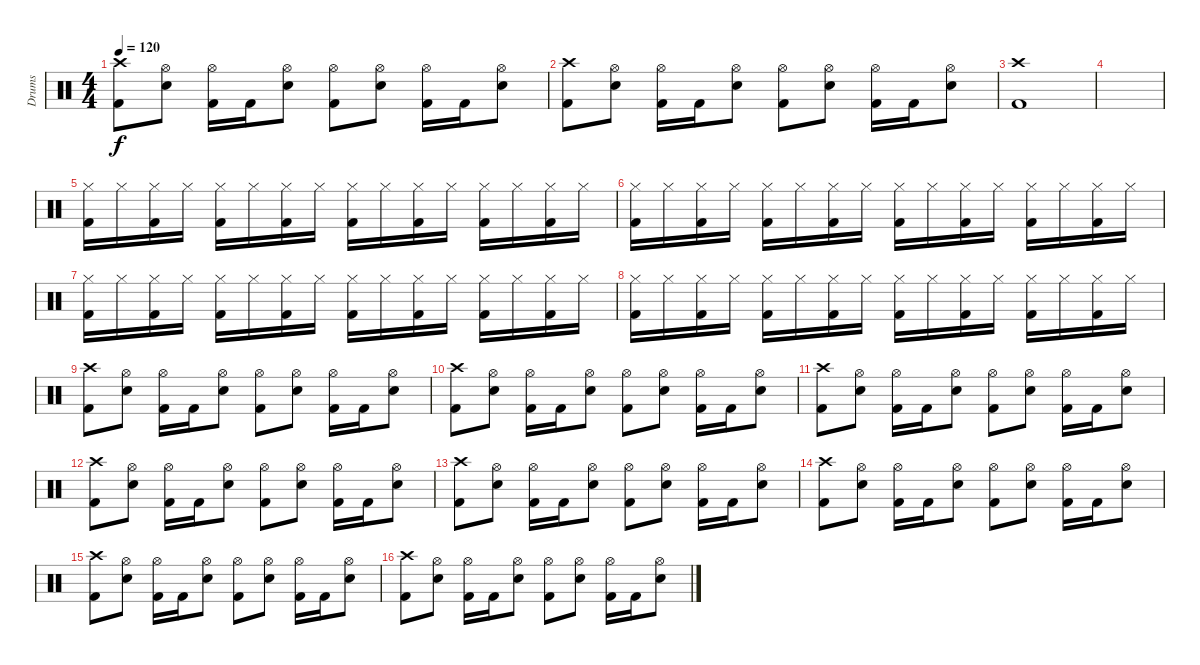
\track ("Drums" "Drums") {instrument percussion}
\staff {score}
\articulation defaults
\ts (4 4)
\tempo 120
\clef neutral
\ks c
("Crash high (hit)" "Kick (hit) 2").8{dy f} ("Hi-Hat (open)" "Snare (hit) 2").8 ("Hi-Hat (open)" "Kick (hit) 2").16 "Kick (hit) 2".16 ("Hi-Hat (open)" "Snare (hit) 2").8 ("Hi-Hat (open)" "Kick (hit) 2").8 ("Hi-Hat (open)" "Snare (hit) 2").8 ("Hi-Hat (open)" "Kick (hit) 2").16 "Kick (hit) 2".16 ("Hi-Hat (open)" "Snare (hit) 2").8 |
("Crash high (hit)" "Kick (hit) 2").8 ("Hi-Hat (open)" "Snare (hit) 2").8 ("Hi-Hat (open)" "Kick (hit) 2").16 "Kick (hit) 2".16 ("Hi-Hat (open)" "Snare (hit) 2").8 ("Hi-Hat (open)" "Kick (hit) 2").8 ("Hi-Hat (open)" "Snare (hit) 2").8 ("Hi-Hat (open)" "Kick (hit) 2").16 "Kick (hit) 2".16 ("Hi-Hat (open)" "Snare (hit) 2").8 |
("Crash high (hit)" "Kick (hit) 2").1 |
|
("Hi-Hat (closed)" "Kick (hit) 2").16 "Hi-Hat (closed)".16 ("Hi-Hat (closed)" "Kick (hit) 2").16 "Hi-Hat (closed)".16 ("Hi-Hat (closed)" "Kick (hit) 2").16 "Hi-Hat (closed)".16 ("Hi-Hat (closed)" "Kick (hit) 2").16 "Hi-Hat (closed)".16 ("Hi-Hat (closed)" "Kick (hit) 2").16 "Hi-Hat (closed)".16 ("Hi-Hat (closed)" "Kick (hit) 2").16 "Hi-Hat (closed)".16 ("Hi-Hat (closed)" "Kick (hit) 2").16 "Hi-Hat (closed)".16 ("Hi-Hat (closed)" "Kick (hit) 2").16 "Hi-Hat (closed)".16 |
("Hi-Hat (closed)" "Kick (hit) 2").16 "Hi-Hat (closed)".16 ("Hi-Hat (closed)" "Kick (hit) 2").16 "Hi-Hat (closed)".16 ("Hi-Hat (closed)" "Kick (hit) 2").16 "Hi-Hat (closed)".16 ("Hi-Hat (closed)" "Kick (hit) 2").16 "Hi-Hat (closed)".16 ("Hi-Hat (closed)" "Kick (hit) 2").16 "Hi-Hat (closed)".16 ("Hi-Hat (closed)" "Kick (hit) 2").16 "Hi-Hat (closed)".16 ("Hi-Hat (closed)" "Kick (hit) 2").16 "Hi-Hat (closed)".16 ("Hi-Hat (closed)" "Kick (hit) 2").16 "Hi-Hat (closed)".16 |
("Hi-Hat (closed)" "Kick (hit) 2").16 "Hi-Hat (closed)".16 ("Hi-Hat (closed)" "Kick (hit) 2").16 "Hi-Hat (closed)".16 ("Hi-Hat (closed)" "Kick (hit) 2").16 "Hi-Hat (closed)".16 ("Hi-Hat (closed)" "Kick (hit) 2").16 "Hi-Hat (closed)".16 ("Hi-Hat (closed)" "Kick (hit) 2").16 "Hi-Hat (closed)".16 ("Hi-Hat (closed)" "Kick (hit) 2").16 "Hi-Hat (closed)".16 ("Hi-Hat (closed)" "Kick (hit) 2").16 "Hi-Hat (closed)".16 ("Hi-Hat (closed)" "Kick (hit) 2").16 "Hi-Hat (closed)".16 |
("Hi-Hat (closed)" "Kick (hit) 2").16 "Hi-Hat (closed)".16 ("Hi-Hat (closed)" "Kick (hit) 2").16 "Hi-Hat (closed)".16 ("Hi-Hat (closed)" "Kick (hit) 2").16 "Hi-Hat (closed)".16 ("Hi-Hat (closed)" "Kick (hit) 2").16 "Hi-Hat (closed)".16 ("Hi-Hat (closed)" "Kick (hit) 2").16 "Hi-Hat (closed)".16 ("Hi-Hat (closed)" "Kick (hit) 2").16 "Hi-Hat (closed)".16 ("Hi-Hat (closed)" "Kick (hit) 2").16 "Hi-Hat (closed)".16 ("Hi-Hat (closed)" "Kick (hit) 2").16 "Hi-Hat (closed)".16 |
("Crash high (hit)" "Kick (hit) 2").8 ("Hi-Hat (open)" "Snare (hit) 2").8 ("Hi-Hat (open)" "Kick (hit) 2").16 "Kick (hit) 2".16 ("Hi-Hat (open)" "Snare (hit) 2").8 ("Hi-Hat (open)" "Kick (hit) 2").8 ("Hi-Hat (open)" "Snare (hit) 2").8 ("Hi-Hat (open)" "Kick (hit) 2").16 "Kick (hit) 2".16 ("Hi-Hat (open)" "Snare (hit) 2").8 |
("Crash high (hit)" "Kick (hit) 2").8 ("Hi-Hat (open)" "Snare (hit) 2").8 ("Hi-Hat (open)" "Kick (hit) 2").16 "Kick (hit) 2".16 ("Hi-Hat (open)" "Snare (hit) 2").8 ("Hi-Hat (open)" "Kick (hit) 2").8 ("Hi-Hat (open)" "Snare (hit) 2").8 ("Hi-Hat (open)" "Kick (hit) 2").16 "Kick (hit) 2".16 ("Hi-Hat (open)" "Snare (hit) 2").8 |
("Crash high (hit)" "Kick (hit) 2").8 ("Hi-Hat (open)" "Snare (hit) 2").8 ("Hi-Hat (open)" "Kick (hit) 2").16 "Kick (hit) 2".16 ("Hi-Hat (open)" "Snare (hit) 2").8 ("Hi-Hat (open)" "Kick (hit) 2").8 ("Hi-Hat (open)" "Snare (hit) 2").8 ("Hi-Hat (open)" "Kick (hit) 2").16 "Kick (hit) 2".16 ("Hi-Hat (open)" "Snare (hit) 2").8 |
("Crash high (hit)" "Kick (hit) 2").8 ("Hi-Hat (open)" "Snare (hit) 2").8 ("Hi-Hat (open)" "Kick (hit) 2").16 "Kick (hit) 2".16 ("Hi-Hat (open)" "Snare (hit) 2").8 ("Hi-Hat (open)" "Kick (hit) 2").8 ("Hi-Hat (open)" "Snare (hit) 2").8 ("Hi-Hat (open)" "Kick (hit) 2").16 "Kick (hit) 2".16 ("Hi-Hat (open)" "Snare (hit) 2").8 |
("Crash high (hit)" "Kick (hit) 2").8 ("Hi-Hat (open)" "Snare (hit) 2").8 ("Hi-Hat (open)" "Kick (hit) 2").16 "Kick (hit) 2".16 ("Hi-Hat (open)" "Snare (hit) 2").8 ("Hi-Hat (open)" "Kick (hit) 2").8 ("Hi-Hat (open)" "Snare (hit) 2").8 ("Hi-Hat (open)" "Kick (hit) 2").16 "Kick (hit) 2".16 ("Hi-Hat (open)" "Snare (hit) 2").8 |
("Crash high (hit)" "Kick (hit) 2").8 ("Hi-Hat (open)" "Snare (hit) 2").8 ("Hi-Hat (open)" "Kick (hit) 2").16 "Kick (hit) 2".16 ("Hi-Hat (open)" "Snare (hit) 2").8 ("Hi-Hat (open)" "Kick (hit) 2").8 ("Hi-Hat (open)" "Snare (hit) 2").8 ("Hi-Hat (open)" "Kick (hit) 2").16 "Kick (hit) 2".16 ("Hi-Hat (open)" "Snare (hit) 2").8 |
("Crash high (hit)" "Kick (hit) 2").8 ("Hi-Hat (open)" "Snare (hit) 2").8 ("Hi-Hat (open)" "Kick (hit) 2").16 "Kick (hit) 2".16 ("Hi-Hat (open)" "Snare (hit) 2").8 ("Hi-Hat (open)" "Kick (hit) 2").8 ("Hi-Hat (open)" "Snare (hit) 2").8 ("Hi-Hat (open)" "Kick (hit) 2").16 "Kick (hit) 2".16 ("Hi-Hat (open)" "Snare (hit) 2").8 |
("Crash high (hit)" "Kick (hit) 2").8 ("Hi-Hat (open)" "Snare (hit) 2").8 ("Hi-Hat (open)" "Kick (hit) 2").16 "Kick (hit) 2".16 ("Hi-Hat (open)" "Snare (hit) 2").8 ("Hi-Hat (open)" "Kick (hit) 2").8 ("Hi-Hat (open)" "Snare (hit) 2").8 ("Hi-Hat (open)" "Kick (hit) 2").16 "Kick (hit) 2".16 ("Hi-Hat (open)" "Snare (hit) 2").8
